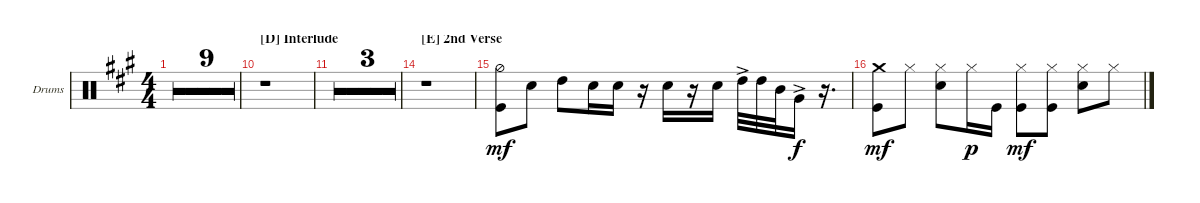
\defaultSystemsLayout 4
\bracketExtendMode groupsimilarinstruments
\firstSystemTrackNameOrientation horizontal
\otherSystemsTrackNameOrientation horizontal
\track ("Dominic Boyce (Drums)" "Drums") {multiBarRest instrument percussion}
\staff {score}
\articulation defaults
\ts (4 4)
\tempo 80
\clef neutral
\ks a
r.1{dy mf} |
r.1 |
r.1 |
r.1 |
r.1 |
r.1 |
r.1 |
r.1 |
r.1 |
\section ("D" "Interlude")
r.1 |
r.1 |
r.1 |
r.1 |
\section ("E" "2nd Verse")
r.1 |
("Kick (hit)" "Hi-Hat (half)").8 "Snare (hit) 2".8 "High Tom (hit)".8 "Snare (hit) 2".16 "Snare (hit) 2".16 r.16 "Snare (hit) 2".16 r.16 "Snare (hit) 2".16 "High Tom (hit)"{ac}.32 "High Tom (hit)".32 "Mid Tom (hit)".32 "Very Low Tom (hit)"{ac}.16{dy f} r.16{d} |
("Kick (hit)" "Crash medium (hit)").8{dy mf} "Hi-Hat (closed)".8 ("Snare (hit) 2" "Hi-Hat (closed)").8 "Hi-Hat (closed)".16{dy p} "Kick (hit)".16 ("Kick (hit)" "Hi-Hat (closed)").8{dy mf} ("Kick (hit)" "Hi-Hat (closed)").8 ("Snare (hit) 2" "Hi-Hat (closed)").8 "Hi-Hat (closed)".8
